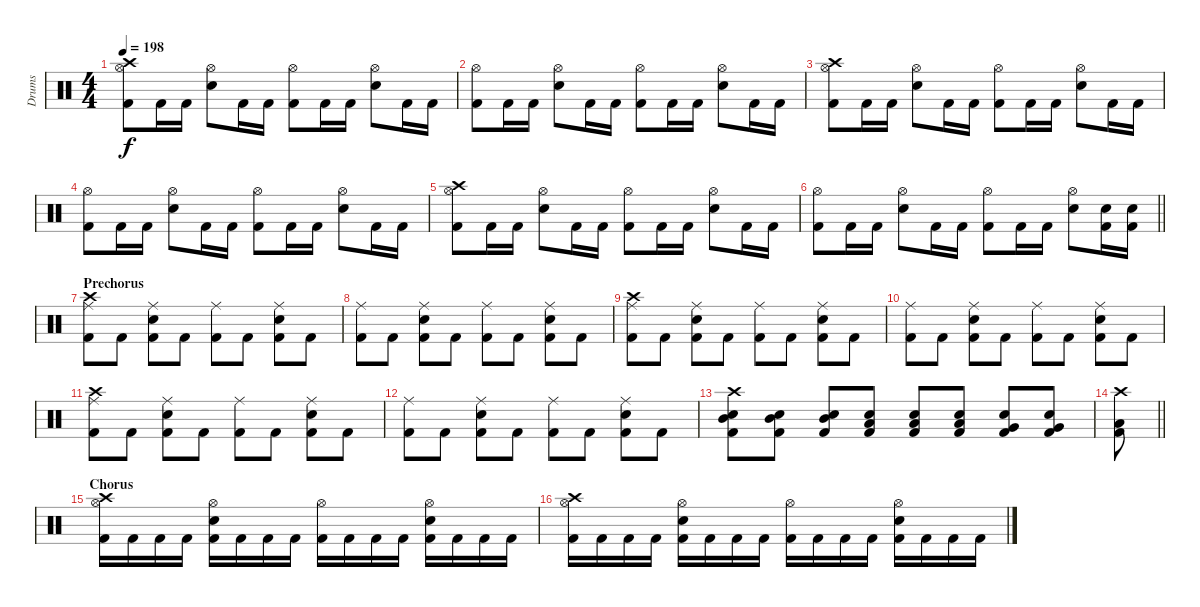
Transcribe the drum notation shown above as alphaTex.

\track ("Drums" "Drums") {instrument percussion}
\staff {score}
\articulation defaults
\ts (4 4)
\tempo 198
\clef neutral
\ks c
("Crash high (hit)" "Hi-Hat (open)" "Kick (hit) 2").8{dy f} "Kick (hit) 2".16 "Kick (hit) 2".16 ("Hi-Hat (open)" "Snare (hit) 2").8 "Kick (hit) 2".16 "Kick (hit) 2".16 ("Hi-Hat (open)" "Kick (hit) 2").8 "Kick (hit) 2".16 "Kick (hit) 2".16 ("Hi-Hat (open)" "Snare (hit) 2").8 "Kick (hit) 2".16 "Kick (hit) 2".16 |
("Hi-Hat (open)" "Kick (hit) 2").8 "Kick (hit) 2".16 "Kick (hit) 2".16 ("Hi-Hat (open)" "Snare (hit) 2").8 "Kick (hit) 2".16 "Kick (hit) 2".16 ("Hi-Hat (open)" "Kick (hit) 2").8 "Kick (hit) 2".16 "Kick (hit) 2".16 ("Hi-Hat (open)" "Snare (hit) 2").8 "Kick (hit) 2".16 "Kick (hit) 2".16 |
("Crash high (hit)" "Hi-Hat (open)" "Kick (hit) 2").8 "Kick (hit) 2".16 "Kick (hit) 2".16 ("Hi-Hat (open)" "Snare (hit) 2").8 "Kick (hit) 2".16 "Kick (hit) 2".16 ("Hi-Hat (open)" "Kick (hit) 2").8 "Kick (hit) 2".16 "Kick (hit) 2".16 ("Hi-Hat (open)" "Snare (hit) 2").8 "Kick (hit) 2".16 "Kick (hit) 2".16 |
("Hi-Hat (open)" "Kick (hit) 2").8 "Kick (hit) 2".16 "Kick (hit) 2".16 ("Hi-Hat (open)" "Snare (hit) 2").8 "Kick (hit) 2".16 "Kick (hit) 2".16 ("Hi-Hat (open)" "Kick (hit) 2").8 "Kick (hit) 2".16 "Kick (hit) 2".16 ("Hi-Hat (open)" "Snare (hit) 2").8 "Kick (hit) 2".16 "Kick (hit) 2".16 |
("Crash high (hit)" "Hi-Hat (open)" "Kick (hit) 2").8 "Kick (hit) 2".16 "Kick (hit) 2".16 ("Hi-Hat (open)" "Snare (hit) 2").8 "Kick (hit) 2".16 "Kick (hit) 2".16 ("Hi-Hat (open)" "Kick (hit) 2").8 "Kick (hit) 2".16 "Kick (hit) 2".16 ("Hi-Hat (open)" "Snare (hit) 2").8 "Kick (hit) 2".16 "Kick (hit) 2".16 |
\barLineRight lightlight
("Hi-Hat (open)" "Kick (hit) 2").8 "Kick (hit) 2".16 "Kick (hit) 2".16 ("Hi-Hat (open)" "Snare (hit) 2").8 "Kick (hit) 2".16 "Kick (hit) 2".16 ("Hi-Hat (open)" "Kick (hit) 2").8 "Kick (hit) 2".16 "Kick (hit) 2".16 ("Hi-Hat (open)" "Snare (hit) 2").8 ("Snare (hit) 2" "Kick (hit) 2").16 ("Snare (hit) 2" "Kick (hit) 2").16 |
\section ("" "Prechorus")
("Crash high (hit)" "Ride (middle)" "Kick (hit) 2").8 "Kick (hit) 2".8 ("Ride (middle)" "Snare (hit) 2" "Kick (hit) 2").8 "Kick (hit) 2".8 ("Ride (middle)" "Kick (hit) 2").8 "Kick (hit) 2".8 ("Ride (middle)" "Snare (hit) 2" "Kick (hit) 2").8 "Kick (hit) 2".8 |
("Ride (middle)" "Kick (hit) 2").8 "Kick (hit) 2".8 ("Ride (middle)" "Snare (hit) 2" "Kick (hit) 2").8 "Kick (hit) 2".8 ("Ride (middle)" "Kick (hit) 2").8 "Kick (hit) 2".8 ("Ride (middle)" "Snare (hit) 2" "Kick (hit) 2").8 "Kick (hit) 2".8 |
("Crash high (hit)" "Ride (middle)" "Kick (hit) 2").8 "Kick (hit) 2".8 ("Ride (middle)" "Snare (hit) 2" "Kick (hit) 2").8 "Kick (hit) 2".8 ("Ride (middle)" "Kick (hit) 2").8 "Kick (hit) 2".8 ("Ride (middle)" "Snare (hit) 2" "Kick (hit) 2").8 "Kick (hit) 2".8 |
("Ride (middle)" "Kick (hit) 2").8 "Kick (hit) 2".8 ("Ride (middle)" "Snare (hit) 2" "Kick (hit) 2").8 "Kick (hit) 2".8 ("Ride (middle)" "Kick (hit) 2").8 "Kick (hit) 2".8 ("Ride (middle)" "Snare (hit) 2" "Kick (hit) 2").8 "Kick (hit) 2".8 |
("Crash high (hit)" "Ride (middle)" "Kick (hit) 2").8 "Kick (hit) 2".8 ("Ride (middle)" "Snare (hit) 2" "Kick (hit) 2").8 "Kick (hit) 2".8 ("Ride (middle)" "Kick (hit) 2").8 "Kick (hit) 2".8 ("Ride (middle)" "Snare (hit) 2" "Kick (hit) 2").8 "Kick (hit) 2".8 |
("Ride (middle)" "Kick (hit) 2").8 "Kick (hit) 2".8 ("Ride (middle)" "Snare (hit) 2" "Kick (hit) 2").8 "Kick (hit) 2".8 ("Ride (middle)" "Kick (hit) 2").8 "Kick (hit) 2".8 ("Ride (middle)" "Snare (hit) 2" "Kick (hit) 2").8 "Kick (hit) 2".8 |
("Crash high (hit)" "Mid Tom (hit)" "Snare (hit) 2" "Kick (hit) 2").8 ("Mid Tom (hit)" "Snare (hit) 2" "Kick (hit) 2").8 ("Mid Tom (hit)" "Snare (hit) 2" "Kick (hit) 2").8 ("Low Tom (hit)" "Snare (hit) 2" "Kick (hit) 2").8 ("Low Tom (hit)" "Snare (hit) 2" "Kick (hit) 2").8 ("Low Tom (hit)" "Snare (hit) 2" "Kick (hit) 2").8 ("Very Low Tom (hit)" "Snare (hit) 2" "Kick (hit) 2").8 ("Very Low Tom (hit)" "Snare (hit) 2" "Kick (hit) 2").8 |
\barLineRight lightlight
("Crash high (hit)" "Low Floor Tom (hit)" "Kick (hit) 2").8 |
\section ("" "Chorus")
("Crash high (hit)" "Hi-Hat (open)" "Kick (hit) 2").16 "Kick (hit) 2".16 "Kick (hit) 2".16 "Kick (hit) 2".16 ("Hi-Hat (open)" "Snare (hit) 2" "Kick (hit) 2").16 "Kick (hit) 2".16 "Kick (hit) 2".16 "Kick (hit) 2".16 ("Hi-Hat (open)" "Kick (hit) 2").16 "Kick (hit) 2".16 "Kick (hit) 2".16 "Kick (hit) 2".16 ("Hi-Hat (open)" "Snare (hit) 2" "Kick (hit) 2").16 "Kick (hit) 2".16 "Kick (hit) 2".16 "Kick (hit) 2".16 |
("Crash high (hit)" "Hi-Hat (open)" "Kick (hit) 2").16 "Kick (hit) 2".16 "Kick (hit) 2".16 "Kick (hit) 2".16 ("Hi-Hat (open)" "Snare (hit) 2" "Kick (hit) 2").16 "Kick (hit) 2".16 "Kick (hit) 2".16 "Kick (hit) 2".16 ("Hi-Hat (open)" "Kick (hit) 2").16 "Kick (hit) 2".16 "Kick (hit) 2".16 "Kick (hit) 2".16 ("Hi-Hat (open)" "Snare (hit) 2" "Kick (hit) 2").16 "Kick (hit) 2".16 "Kick (hit) 2".16 "Kick (hit) 2".16
